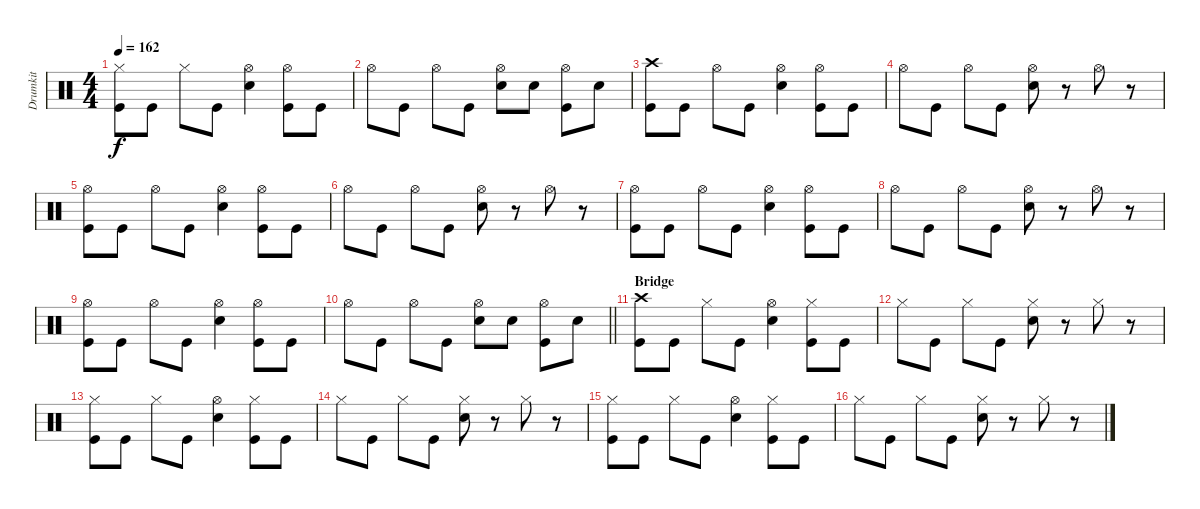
\track ("Drumkit" "Drumkit") {instrument percussion}
\staff {score}
\articulation defaults
\ts (4 4)
\tempo 162
\clef neutral
\ks c
("Kick (hit)" "Hi-Hat (closed)").8{dy f} "Kick (hit)".8 "Hi-Hat (closed)".8 "Kick (hit)".8 ("Snare (hit) 2" "Hi-Hat (open)").4 ("Kick (hit)" "Hi-Hat (open)").8 "Kick (hit)".8 |
"Hi-Hat (open)".8 "Kick (hit)".8 "Hi-Hat (open)".8 "Kick (hit)".8 ("Snare (hit) 2" "Hi-Hat (open)").8 "Snare (hit) 2".8 ("Hi-Hat (open)" "Kick (hit)").8 "Snare (hit) 2".8 |
("Kick (hit)" "Crash high (hit)").8 "Kick (hit)".8 "Hi-Hat (open)".8 "Kick (hit)".8 ("Snare (hit) 2" "Hi-Hat (open)").4 ("Kick (hit)" "Hi-Hat (open)").8 "Kick (hit)".8 |
"Hi-Hat (open)".8 "Kick (hit)".8 "Hi-Hat (open)".8 "Kick (hit)".8 ("Snare (hit) 2" "Hi-Hat (open)").8 r.8 "Hi-Hat (open)".8 r.8 |
("Kick (hit)" "Hi-Hat (open)").8 "Kick (hit)".8 "Hi-Hat (open)".8 "Kick (hit)".8 ("Snare (hit) 2" "Hi-Hat (open)").4 ("Kick (hit)" "Hi-Hat (open)").8 "Kick (hit)".8 |
"Hi-Hat (open)".8 "Kick (hit)".8 "Hi-Hat (open)".8 "Kick (hit)".8 ("Snare (hit) 2" "Hi-Hat (open)").8 r.8 "Hi-Hat (open)".8 r.8 |
("Kick (hit)" "Hi-Hat (open)").8 "Kick (hit)".8 "Hi-Hat (open)".8 "Kick (hit)".8 ("Snare (hit) 2" "Hi-Hat (open)").4 ("Kick (hit)" "Hi-Hat (open)").8 "Kick (hit)".8 |
"Hi-Hat (open)".8 "Kick (hit)".8 "Hi-Hat (open)".8 "Kick (hit)".8 ("Snare (hit) 2" "Hi-Hat (open)").8 r.8 "Hi-Hat (open)".8 r.8 |
("Kick (hit)" "Hi-Hat (open)").8 "Kick (hit)".8 "Hi-Hat (open)".8 "Kick (hit)".8 ("Snare (hit) 2" "Hi-Hat (open)").4 ("Kick (hit)" "Hi-Hat (open)").8 "Kick (hit)".8 |
\barLineRight lightlight "Hi-Hat (open)".8 "Kick (hit)".8 "Hi-Hat (open)".8 "Kick (hit)".8
("Snare (hit) 2" "Hi-Hat (open)").8 "Snare (hit) 2".8 ("Hi-Hat (open)" "Kick (hit)").8 "Snare (hit) 2".8 |
\section ("" "Bridge")
("Kick (hit)" "Crash high (hit)").8 "Kick (hit)".8 "Hi-Hat (closed)".8 "Kick (hit)".8 ("Snare (hit) 2" "Hi-Hat (open)").4 ("Kick (hit)" "Hi-Hat (closed)").8 "Kick (hit)".8 |
"Hi-Hat (closed)".8 "Kick (hit)".8 "Hi-Hat (closed)".8 "Kick (hit)".8 ("Snare (hit) 2" "Hi-Hat (closed)").8 r.8 "Hi-Hat (closed)".8 r.8 |
("Kick (hit)" "Hi-Hat (closed)").8 "Kick (hit)".8 "Hi-Hat (closed)".8 "Kick (hit)".8 ("Snare (hit) 2" "Hi-Hat (open)").4 ("Kick (hit)" "Hi-Hat (closed)").8 "Kick (hit)".8 |
"Hi-Hat (closed)".8 "Kick (hit)".8 "Hi-Hat (closed)".8 "Kick (hit)".8 ("Snare (hit) 2" "Hi-Hat (closed)").8 r.8 "Hi-Hat (closed)".8 r.8 |
("Kick (hit)" "Hi-Hat (closed)").8 "Kick (hit)".8 "Hi-Hat (closed)".8 "Kick (hit)".8 ("Snare (hit) 2" "Hi-Hat (open)").4 ("Kick (hit)" "Hi-Hat (closed)").8 "Kick (hit)".8 |
"Hi-Hat (closed)".8 "Kick (hit)".8 "Hi-Hat (closed)".8 "Kick (hit)".8 ("Snare (hit) 2" "Hi-Hat (closed)").8 r.8 "Hi-Hat (closed)".8 r.8
